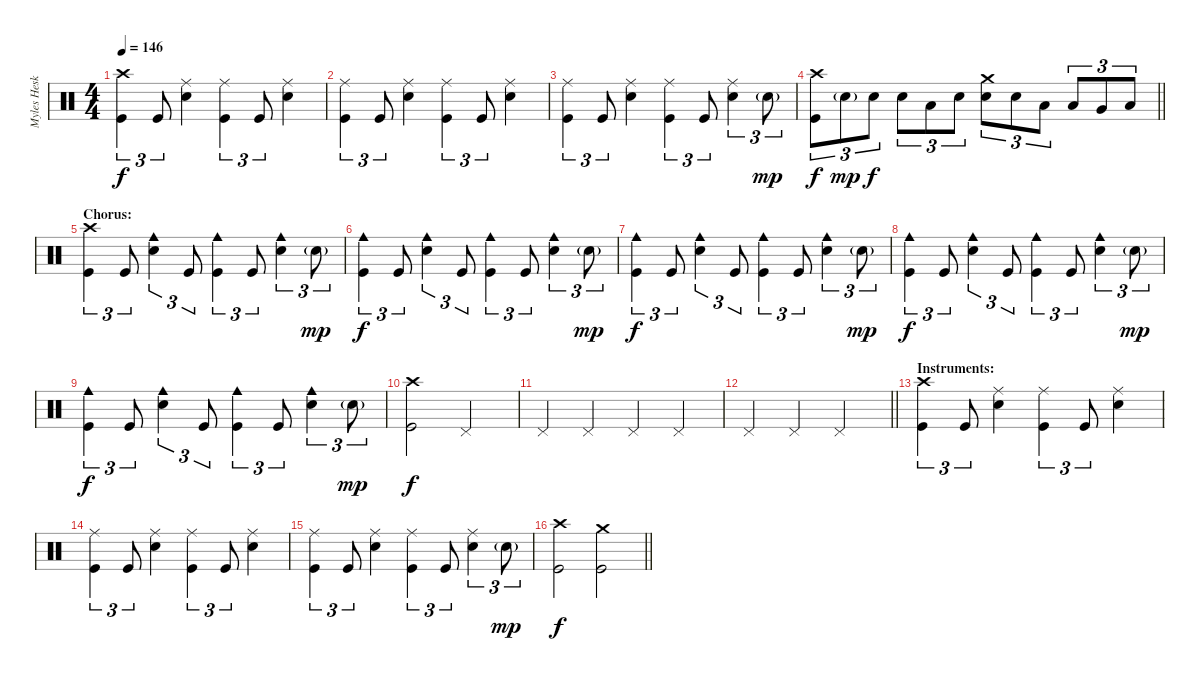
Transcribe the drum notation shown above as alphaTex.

\track ("Myles Heskett" "Myles Hesk") {instrument percussion}
\staff {score}
\articulation defaults
\ts (4 4)
\tempo 146
\clef neutral
\ks c
("Crash high (hit)" "Kick (hit)").4{tu (3 2) dy f} "Kick (hit)".8{tu (3 2)} ("Ride (middle)" "Electric Snare (hit)").4 ("Ride (middle)" "Kick (hit)").4{tu (3 2)} "Kick (hit)".8{tu (3 2)} ("Ride (middle)" "Electric Snare (hit)").4 |
("Ride (middle)" "Kick (hit)").4{tu (3 2)} "Kick (hit)".8{tu (3 2)} ("Ride (middle)" "Electric Snare (hit)").4 ("Ride (middle)" "Kick (hit)").4{tu (3 2)} "Kick (hit)".8{tu (3 2)} ("Ride (middle)" "Electric Snare (hit)").4 |
("Ride (middle)" "Kick (hit)").4{tu (3 2)} "Kick (hit)".8{tu (3 2)} ("Ride (middle)" "Electric Snare (hit)").4 ("Ride (middle)" "Kick (hit)").4{tu (3 2)} "Kick (hit)".8{tu (3 2)} ("Ride (middle)" "Electric Snare (hit)").4{tu (3 2)} "Electric Snare (hit)"{g}.8{tu (3 2) dy mp} |
\barLineRight lightlight
("Crash high (hit)" "Kick (hit)").8{tu (3 2) dy f} "Electric Snare (hit)"{g}.8{tu (3 2) dy mp} "Electric Snare (hit)".8{tu (3 2) dy f} "Electric Snare (hit)".8{tu (3 2)} "Low Tom (hit)".8{tu (3 2)} "Electric Snare (hit)".8{tu (3 2)} ("Crash medium (hit)" "Electric Snare (hit)").8{tu (3 2)} "Electric Snare (hit)".8{tu (3 2)} "Low Tom (hit)".8{tu (3 2)} "Low Tom (hit)".8{tu (3 2)} "Very Low Tom (hit)".8{tu (3 2)} "Low Floor Tom (hit)".8{tu (3 2)} |
\section ("" "Chorus:")
("Crash high (hit)" "Kick (hit)").4{tu (3 2)} "Kick (hit)".8{tu (3 2)} ("Cowbell medium (hit)" "Electric Snare (hit)").4{tu (3 2)} "Kick (hit)".8{tu (3 2)} ("Cowbell medium (hit)" "Kick (hit)").4{tu (3 2)} "Kick (hit)".8{tu (3 2)} ("Cowbell medium (hit)" "Electric Snare (hit)").4{tu (3 2)} "Electric Snare (hit)"{g}.8{tu (3 2) dy mp} |
("Cowbell medium (hit)" "Kick (hit)").4{tu (3 2) dy f} "Kick (hit)".8{tu (3 2)} ("Cowbell medium (hit)" "Electric Snare (hit)").4{tu (3 2)} "Kick (hit)".8{tu (3 2)} ("Cowbell medium (hit)" "Kick (hit)").4{tu (3 2)} "Kick (hit)".8{tu (3 2)} ("Cowbell medium (hit)" "Electric Snare (hit)").4{tu (3 2)} "Electric Snare (hit)"{g}.8{tu (3 2) dy mp} |
("Cowbell medium (hit)" "Kick (hit)").4{tu (3 2) dy f} "Kick (hit)".8{tu (3 2)} ("Cowbell medium (hit)" "Electric Snare (hit)").4{tu (3 2)} "Kick (hit)".8{tu (3 2)} ("Cowbell medium (hit)" "Kick (hit)").4{tu (3 2)} "Kick (hit)".8{tu (3 2)} ("Cowbell medium (hit)" "Electric Snare (hit)").4{tu (3 2)} "Electric Snare (hit)"{g}.8{tu (3 2) dy mp} |
("Cowbell medium (hit)" "Kick (hit)").4{tu (3 2) dy f} "Kick (hit)".8{tu (3 2)} ("Cowbell medium (hit)" "Electric Snare (hit)").4{tu (3 2)} "Kick (hit)".8{tu (3 2)} ("Cowbell medium (hit)" "Kick (hit)").4{tu (3 2)} "Kick (hit)".8{tu (3 2)} ("Cowbell medium (hit)" "Electric Snare (hit)").4{tu (3 2)} "Electric Snare (hit)"{g}.8{tu (3 2) dy mp} |
("Cowbell medium (hit)" "Kick (hit)").4{tu (3 2) dy f} "Kick (hit)".8{tu (3 2)} ("Cowbell medium (hit)" "Electric Snare (hit)").4{tu (3 2)} "Kick (hit)".8{tu (3 2)} ("Cowbell medium (hit)" "Kick (hit)").4{tu (3 2)} "Kick (hit)".8{tu (3 2)} ("Cowbell medium (hit)" "Electric Snare (hit)").4{tu (3 2)} "Electric Snare (hit)"{g}.8{tu (3 2) dy mp} |
("Crash high (hit)" "Kick (hit)").2{dy f} "Pedal Hi-Hat (hit)".2 |
"Pedal Hi-Hat (hit)".4 "Pedal Hi-Hat (hit)".4 "Pedal Hi-Hat (hit)".4 "Pedal Hi-Hat (hit)".4 |
\barLineRight lightlight "Pedal Hi-Hat (hit)".4 "Pedal Hi-Hat (hit)".4 "Pedal Hi-Hat (hit)".2
|
\section ("" "Instruments:")
("Crash high (hit)" "Kick (hit)").4{tu (3 2)} "Kick (hit)".8{tu (3 2)} ("Ride (middle)" "Electric Snare (hit)").4 ("Ride (middle)" "Kick (hit)").4{tu (3 2)} "Kick (hit)".8{tu (3 2)} ("Ride (middle)" "Electric Snare (hit)").4 |
("Ride (middle)" "Kick (hit)").4{tu (3 2)} "Kick (hit)".8{tu (3 2)} ("Ride (middle)" "Electric Snare (hit)").4 ("Ride (middle)" "Kick (hit)").4{tu (3 2)} "Kick (hit)".8{tu (3 2)} ("Ride (middle)" "Electric Snare (hit)").4 |
("Ride (middle)" "Kick (hit)").4{tu (3 2)} "Kick (hit)".8{tu (3 2)} ("Ride (middle)" "Electric Snare (hit)").4 ("Ride (middle)" "Kick (hit)").4{tu (3 2)} "Kick (hit)".8{tu (3 2)} ("Ride (middle)" "Electric Snare (hit)").4{tu (3 2)} "Electric Snare (hit)"{g}.8{tu (3 2) dy mp} |
\barLineRight lightlight
("Crash high (hit)" "Kick (hit)").2{dy f} ("Crash medium (hit)" "Kick (hit)").2
